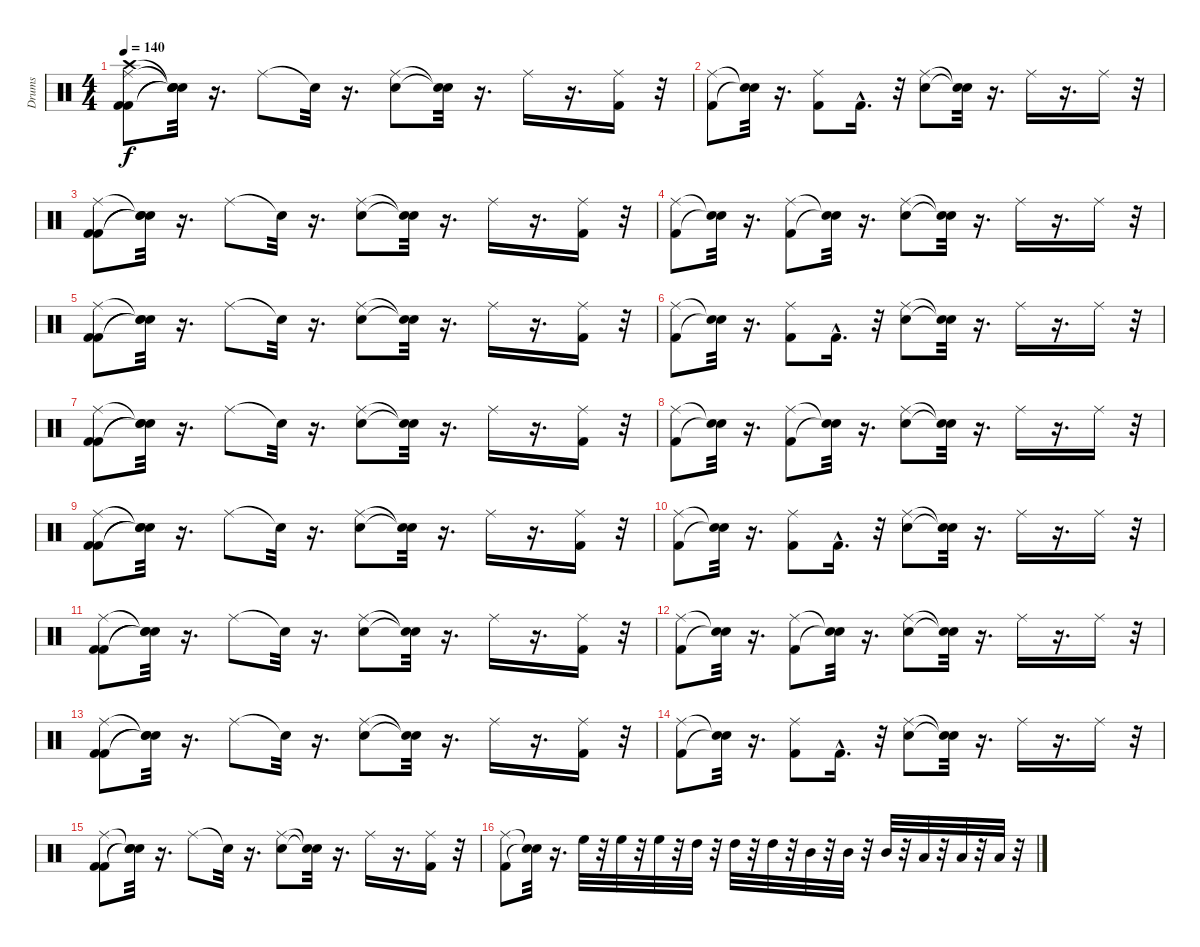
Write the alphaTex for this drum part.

\track ("Drums" "Drums") {instrument percussion}
\staff {score}
\articulation defaults
\ts (4 4)
\tempo 140
\clef neutral
\ks c
("Kick (hit) 2" "Kick (hit) 2" "Ride (middle)" "Crash high (hit)").8{dy f} ("Snare (hit)"{t} "Snare (hit)"{t} "Snare (hit)"{t} "Snare (hit)"{t}).32 r.16{d} "Ride (middle)".8 "Snare (hit)"{t}.32 r.16{d} ("Snare (hit) 2" "Ride (middle)").8 ("Snare (hit)"{t} "Snare (hit)"{t}).32 r.16{d} "Ride (middle)".16 r.16{d} ("Kick (hit) 2" "Ride (middle)").16 r.32 |
("Ride (middle)" "Kick (hit) 2").8 ("Snare (hit)"{t} "Snare (hit)"{t}).32 r.16{d} ("Ride (middle)" "Kick (hit) 2").8 "Kick (hit) 2"{hac}.16{d} r.32 ("Snare (hit) 2" "Ride (middle)").8 ("Snare (hit)"{t} "Snare (hit)"{t}).32 r.16{d} "Ride (middle)".16 r.16{d} "Ride (middle)".16 r.32 |
("Ride (middle)" "Kick (hit) 2" "Kick (hit) 2").8 ("Snare (hit)"{t} "Snare (hit)"{t} "Snare (hit)"{t}).32 r.16{d} "Ride (middle)".8 "Snare (hit)"{t}.32 r.16{d} ("Snare (hit) 2" "Ride (middle)").8 ("Snare (hit)"{t} "Snare (hit)"{t}).32 r.16{d} "Ride (middle)".16 r.16{d} ("Ride (middle)" "Kick (hit) 2").16 r.32 |
("Ride (middle)" "Kick (hit) 2").8 ("Snare (hit)"{t} "Snare (hit)"{t}).32 r.16{d} ("Ride (middle)" "Kick (hit) 2").8 ("Snare (hit)"{t} "Snare (hit)"{t}).32 r.16{d} ("Ride (middle)" "Snare (hit) 2").8 ("Snare (hit)"{t} "Snare (hit)"{t}).32 r.16{d} "Ride (middle)".16 r.16{d} "Ride (middle)".16 r.32 |
("Kick (hit) 2" "Ride (middle)" "Kick (hit) 2").8 ("Snare (hit)"{t} "Snare (hit)"{t} "Snare (hit)"{t}).32 r.16{d} "Ride (middle)".8 "Snare (hit)"{t}.32 r.16{d} ("Ride (middle)" "Snare (hit) 2").8 ("Snare (hit)"{t} "Snare (hit)"{t}).32 r.16{d} "Ride (middle)".16 r.16{d} ("Ride (middle)" "Kick (hit) 2").16 r.32 |
("Kick (hit) 2" "Ride (middle)").8 ("Snare (hit)"{t} "Snare (hit)"{t}).32 r.16{d} ("Ride (middle)" "Kick (hit) 2").8 "Kick (hit) 2"{hac}.16{d} r.32 ("Snare (hit) 2" "Ride (middle)").8 ("Snare (hit)"{t} "Snare (hit)"{t}).32 r.16{d} "Ride (middle)".16 r.16{d} "Ride (middle)".16 r.32 |
("Kick (hit) 2" "Ride (middle)" "Kick (hit) 2").8 ("Snare (hit)"{t} "Snare (hit)"{t} "Snare (hit)"{t}).32 r.16{d} "Ride (middle)".8 "Snare (hit)"{t}.32 r.16{d} ("Snare (hit) 2" "Ride (middle)").8 ("Snare (hit)"{t} "Snare (hit)"{t}).32 r.16{d} "Ride (middle)".16 r.16{d} ("Kick (hit) 2" "Ride (middle)").16 r.32 |
("Ride (middle)" "Kick (hit) 2").8 ("Snare (hit)"{t} "Snare (hit)"{t}).32 r.16{d} ("Kick (hit) 2" "Ride (middle)").8 ("Snare (hit)"{t} "Snare (hit)"{t}).32 r.16{d} ("Snare (hit) 2" "Ride (middle)").8 ("Snare (hit)"{t} "Snare (hit)"{t}).32 r.16{d} "Ride (middle)".16 r.16{d} "Ride (middle)".16 r.32 |
("Kick (hit) 2" "Ride (middle)" "Kick (hit) 2").8 ("Snare (hit)"{t} "Snare (hit)"{t} "Snare (hit)"{t}).32 r.16{d} "Ride (middle)".8 "Snare (hit)"{t}.32 r.16{d} ("Snare (hit) 2" "Ride (middle)").8 ("Snare (hit)"{t} "Snare (hit)"{t}).32 r.16{d} "Ride (middle)".16 r.16{d} ("Kick (hit) 2" "Ride (middle)").16 r.32 |
("Ride (middle)" "Kick (hit) 2").8 ("Snare (hit)"{t} "Snare (hit)"{t}).32 r.16{d} ("Ride (middle)" "Kick (hit) 2").8 "Kick (hit) 2"{hac}.16{d} r.32 ("Ride (middle)" "Snare (hit) 2").8 ("Snare (hit)"{t} "Snare (hit)"{t}).32 r.16{d} "Ride (middle)".16 r.16{d} "Ride (middle)".16 r.32 |
("Kick (hit) 2" "Kick (hit) 2" "Ride (middle)").8 ("Snare (hit)"{t} "Snare (hit)"{t} "Snare (hit)"{t}).32 r.16{d} "Ride (middle)".8 "Snare (hit)"{t}.32 r.16{d} ("Ride (middle)" "Snare (hit) 2").8 ("Snare (hit)"{t} "Snare (hit)"{t}).32 r.16{d} "Ride (middle)".16 r.16{d} ("Ride (middle)" "Kick (hit) 2").16 r.32 |
("Kick (hit) 2" "Ride (middle)").8 ("Snare (hit)"{t} "Snare (hit)"{t}).32 r.16{d} ("Ride (middle)" "Kick (hit) 2").8 ("Snare (hit)"{t} "Snare (hit)"{t}).32 r.16{d} ("Ride (middle)" "Snare (hit) 2").8 ("Snare (hit)"{t} "Snare (hit)"{t}).32 r.16{d} "Ride (middle)".16 r.16{d} "Ride (middle)".16 r.32 |
("Kick (hit) 2" "Kick (hit) 2" "Ride (middle)").8 ("Snare (hit)"{t} "Snare (hit)"{t} "Snare (hit)"{t}).32 r.16{d} "Ride (middle)".8 "Snare (hit)"{t}.32 r.16{d} ("Snare (hit) 2" "Ride (middle)").8 ("Snare (hit)"{t} "Snare (hit)"{t}).32 r.16{d} "Ride (middle)".16 r.16{d} ("Kick (hit) 2" "Ride (middle)").16 r.32 |
("Kick (hit) 2" "Ride (middle)").8 ("Snare (hit)"{t} "Snare (hit)"{t}).32 r.16{d} ("Ride (middle)" "Kick (hit) 2").8 "Kick (hit) 2"{hac}.16{d} r.32 ("Ride (middle)" "Snare (hit) 2").8 ("Snare (hit)"{t} "Snare (hit)"{t}).32 r.16{d} "Ride (middle)".16 r.16{d} "Ride (middle)".16 r.32 |
("Kick (hit) 2" "Ride (middle)" "Kick (hit) 2").8 ("Snare (hit)"{t} "Snare (hit)"{t} "Snare (hit)"{t}).32 r.16{d} "Ride (middle)".8 "Snare (hit)"{t}.32 r.16{d} ("Ride (middle)" "Snare (hit) 2").8 ("Snare (hit)"{t} "Snare (hit)"{t}).32 r.16{d} "Ride (middle)".16 r.16{d} ("Ride (middle)" "Kick (hit) 2").16 r.32 |
("Kick (hit) 2" "Ride (middle)").8 ("Snare (hit)"{t} "Snare (hit)"{t}).32 r.16{d} "High Floor Tom (hit)".32 r.32 "High Floor Tom (hit)".32 r.32 "High Floor Tom (hit)".32 r.32 "High Tom (hit)".32 r.32 "High Tom (hit)".32 r.32 "High Tom (hit)".32 r.32 "Mid Tom (hit)".32 r.32 "Mid Tom (hit)".32 r.32 "Mid Tom (hit)".32 r.32 "Low Tom (hit)".32 r.32 "Low Tom (hit)".32 r.32 "Low Tom (hit)".32 r.32
